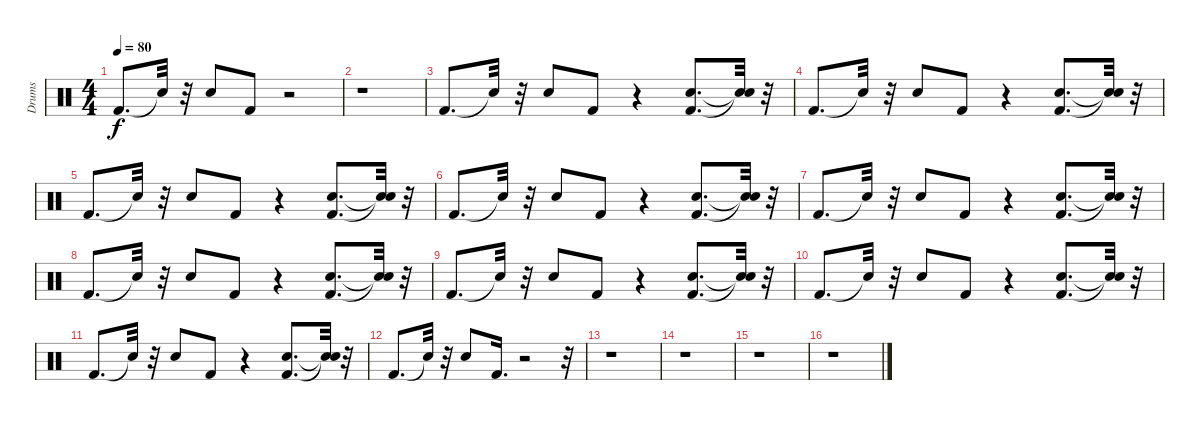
\track ("Drums" "Drums") {instrument percussion}
\staff {score}
\articulation defaults
\ts (4 4)
\tempo 80
\clef neutral
\ks c "Kick (hit) 2".8{d dy f} "Snare (hit)"{t}.32
r.32 "Snare (hit) 2".8 "Kick (hit) 2".8 r.2 |
r.1 |
"Kick (hit) 2".8{d} "Snare (hit)"{t}.32 r.32 "Snare (hit) 2".8 "Kick (hit) 2".8 r.4 ("Snare (hit) 2" "Kick (hit) 2").8{d} ("Snare (hit)"{t} "Snare (hit)"{t}).32 r.32 |
"Kick (hit) 2".8{d} "Snare (hit)"{t}.32 r.32 "Snare (hit) 2".8 "Kick (hit) 2".8 r.4 ("Snare (hit) 2" "Kick (hit) 2").8{d} ("Snare (hit)"{t} "Snare (hit)"{t}).32 r.32 |
"Kick (hit) 2".8{d} "Snare (hit)"{t}.32 r.32 "Snare (hit) 2".8 "Kick (hit) 2".8 r.4 ("Snare (hit) 2" "Kick (hit) 2").8{d} ("Snare (hit)"{t} "Snare (hit)"{t}).32 r.32 |
"Kick (hit) 2".8{d} "Snare (hit)"{t}.32 r.32 "Snare (hit) 2".8 "Kick (hit) 2".8 r.4 ("Snare (hit) 2" "Kick (hit) 2").8{d} ("Snare (hit)"{t} "Snare (hit)"{t}).32 r.32 |
"Kick (hit) 2".8{d} "Snare (hit)"{t}.32 r.32 "Snare (hit) 2".8 "Kick (hit) 2".8 r.4 ("Snare (hit) 2" "Kick (hit) 2").8{d} ("Snare (hit)"{t} "Snare (hit)"{t}).32 r.32 |
"Kick (hit) 2".8{d} "Snare (hit)"{t}.32 r.32 "Snare (hit) 2".8 "Kick (hit) 2".8 r.4 ("Snare (hit) 2" "Kick (hit) 2").8{d} ("Snare (hit)"{t} "Snare (hit)"{t}).32 r.32 |
"Kick (hit) 2".8{d} "Snare (hit)"{t}.32 r.32 "Snare (hit) 2".8 "Kick (hit) 2".8 r.4 ("Snare (hit) 2" "Kick (hit) 2").8{d} ("Snare (hit)"{t} "Snare (hit)"{t}).32 r.32 |
"Kick (hit) 2".8{d} "Snare (hit)"{t}.32 r.32 "Snare (hit) 2".8 "Kick (hit) 2".8 r.4 ("Snare (hit) 2" "Kick (hit) 2").8{d} ("Snare (hit)"{t} "Snare (hit)"{t}).32 r.32 |
"Kick (hit) 2".8{d} "Snare (hit)"{t}.32 r.32 "Snare (hit) 2".8 "Kick (hit) 2".8 r.4 ("Snare (hit) 2" "Kick (hit) 2").8{d} ("Snare (hit)"{t} "Snare (hit)"{t}).32 r.32 |
"Kick (hit) 2".8{d} "Snare (hit)"{t}.32 r.32 "Snare (hit) 2".8 "Kick (hit) 2".16{d} r.2 r.32 |
r.1 |
r.1 |
r.1 |
r.1
